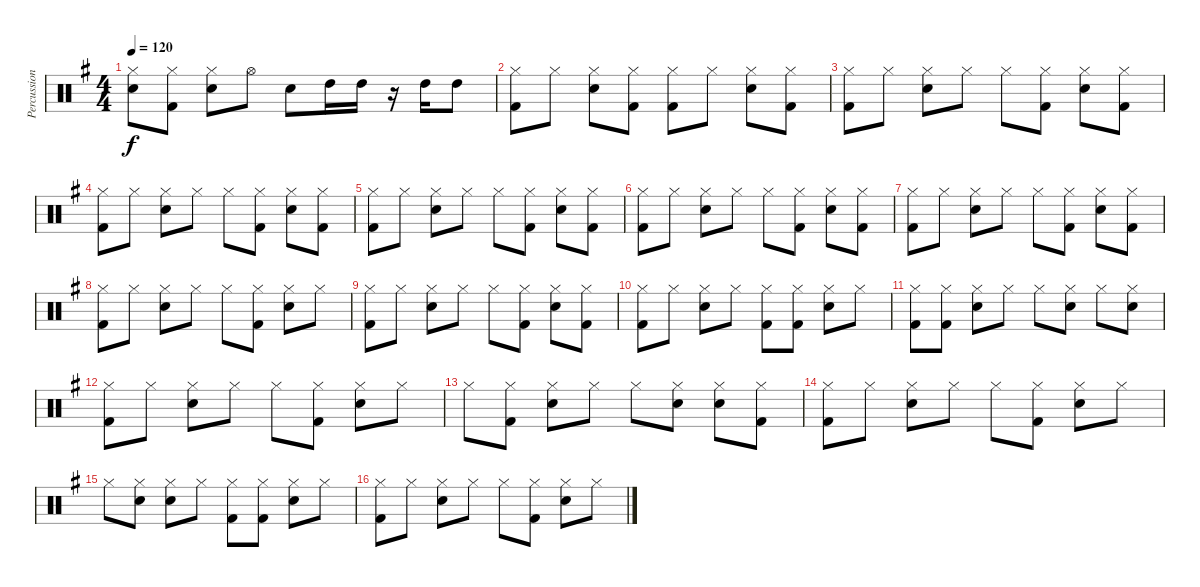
\track ("Percussion" "Percussion") {instrument percussion}
\staff {score}
\articulation defaults
\ts (4 4)
\tempo 120
\clef neutral
\ks g
("Hi-Hat (closed)" "Snare (hit) 2").8{dy f} ("Hi-Hat (closed)" "Kick (hit) 2").8 ("Hi-Hat (closed)" "Snare (hit) 2").8 "Hi-Hat (open)".8 "Snare (hit) 2".8 "High Tom (hit)".16 "High Tom (hit)".16 r.16 "High Tom (hit)".16 "High Tom (hit)".8 |
("Hi-Hat (closed)" "Kick (hit) 2").8 "Hi-Hat (closed)".8 ("Hi-Hat (closed)" "Snare (hit) 2").8 ("Hi-Hat (closed)" "Kick (hit) 2").8 ("Hi-Hat (closed)" "Kick (hit) 2").8 "Hi-Hat (closed)".8 ("Hi-Hat (closed)" "Snare (hit) 2").8 ("Hi-Hat (closed)" "Kick (hit) 2").8 |
("Hi-Hat (closed)" "Kick (hit) 2").8 "Hi-Hat (closed)".8 ("Hi-Hat (closed)" "Snare (hit) 2").8 "Hi-Hat (closed)".8 "Hi-Hat (closed)".8 ("Hi-Hat (closed)" "Kick (hit) 2").8 ("Hi-Hat (closed)" "Snare (hit) 2").8 ("Hi-Hat (closed)" "Kick (hit) 2").8 |
("Hi-Hat (closed)" "Kick (hit) 2").8 "Hi-Hat (closed)".8 ("Hi-Hat (closed)" "Snare (hit) 2").8 "Hi-Hat (closed)".8 "Hi-Hat (closed)".8 ("Hi-Hat (closed)" "Kick (hit) 2").8 ("Hi-Hat (closed)" "Snare (hit) 2").8 ("Hi-Hat (closed)" "Kick (hit) 2").8 |
("Hi-Hat (closed)" "Kick (hit) 2").8 "Hi-Hat (closed)".8 ("Hi-Hat (closed)" "Snare (hit) 2").8 "Hi-Hat (closed)".8 "Hi-Hat (closed)".8 ("Hi-Hat (closed)" "Kick (hit) 2").8 ("Hi-Hat (closed)" "Snare (hit) 2").8 ("Hi-Hat (closed)" "Kick (hit) 2").8 |
("Hi-Hat (closed)" "Kick (hit) 2").8 "Hi-Hat (closed)".8 ("Hi-Hat (closed)" "Snare (hit) 2").8 "Hi-Hat (closed)".8 "Hi-Hat (closed)".8 ("Hi-Hat (closed)" "Kick (hit) 2").8 ("Hi-Hat (closed)" "Snare (hit) 2").8 ("Hi-Hat (closed)" "Kick (hit) 2").8 |
("Hi-Hat (closed)" "Kick (hit) 2").8 "Hi-Hat (closed)".8 ("Hi-Hat (closed)" "Snare (hit) 2").8 "Hi-Hat (closed)".8 "Hi-Hat (closed)".8 ("Hi-Hat (closed)" "Kick (hit) 2").8 ("Hi-Hat (closed)" "Snare (hit) 2").8 ("Hi-Hat (closed)" "Kick (hit) 2").8 |
("Hi-Hat (closed)" "Kick (hit) 2").8 "Hi-Hat (closed)".8 ("Hi-Hat (closed)" "Snare (hit) 2").8 "Hi-Hat (closed)".8 "Hi-Hat (closed)".8 ("Hi-Hat (closed)" "Kick (hit) 2").8 ("Hi-Hat (closed)" "Snare (hit) 2").8 "Hi-Hat (closed)".8 |
("Hi-Hat (closed)" "Kick (hit) 2").8 "Hi-Hat (closed)".8 ("Hi-Hat (closed)" "Snare (hit) 2").8 "Hi-Hat (closed)".8 "Hi-Hat (closed)".8 ("Hi-Hat (closed)" "Kick (hit) 2").8 ("Hi-Hat (closed)" "Snare (hit) 2").8 ("Hi-Hat (closed)" "Kick (hit) 2").8 |
("Hi-Hat (closed)" "Kick (hit) 2").8 "Hi-Hat (closed)".8 ("Hi-Hat (closed)" "Snare (hit) 2").8 "Hi-Hat (closed)".8 ("Hi-Hat (closed)" "Kick (hit) 2").8 ("Hi-Hat (closed)" "Kick (hit) 2").8 ("Hi-Hat (closed)" "Snare (hit) 2").8 "Hi-Hat (closed)".8 |
("Hi-Hat (closed)" "Kick (hit) 2").8 ("Hi-Hat (closed)" "Kick (hit) 2").8 ("Hi-Hat (closed)" "Snare (hit) 2").8 "Hi-Hat (closed)".8 "Hi-Hat (closed)".8 ("Hi-Hat (closed)" "Snare (hit) 2").8 "Hi-Hat (closed)".8 ("Hi-Hat (closed)" "Snare (hit) 2").8 |
("Hi-Hat (closed)" "Kick (hit) 2").8 "Hi-Hat (closed)".8 ("Hi-Hat (closed)" "Snare (hit) 2").8 "Hi-Hat (closed)".8 "Hi-Hat (closed)".8 ("Hi-Hat (closed)" "Kick (hit) 2").8 ("Hi-Hat (closed)" "Snare (hit) 2").8 "Hi-Hat (closed)".8 |
"Hi-Hat (closed)".8 ("Hi-Hat (closed)" "Kick (hit) 2").8 ("Hi-Hat (closed)" "Snare (hit) 2").8 "Hi-Hat (closed)".8 "Hi-Hat (closed)".8 ("Hi-Hat (closed)" "Snare (hit) 2").8 ("Hi-Hat (closed)" "Snare (hit) 2").8 ("Hi-Hat (closed)" "Kick (hit) 2").8 |
("Hi-Hat (closed)" "Kick (hit) 2").8 "Hi-Hat (closed)".8 ("Hi-Hat (closed)" "Snare (hit) 2").8 "Hi-Hat (closed)".8 "Hi-Hat (closed)".8 ("Hi-Hat (closed)" "Kick (hit) 2").8 ("Hi-Hat (closed)" "Snare (hit) 2").8 "Hi-Hat (closed)".8 |
"Hi-Hat (closed)".8 ("Hi-Hat (closed)" "Snare (hit) 2").8 ("Hi-Hat (closed)" "Snare (hit) 2").8 "Hi-Hat (closed)".8 ("Hi-Hat (closed)" "Kick (hit) 2").8 ("Hi-Hat (closed)" "Kick (hit) 2").8 ("Hi-Hat (closed)" "Snare (hit) 2").8 "Hi-Hat (closed)".8 |
("Hi-Hat (closed)" "Kick (hit) 2").8 "Hi-Hat (closed)".8 ("Hi-Hat (closed)" "Snare (hit) 2").8 "Hi-Hat (closed)".8 "Hi-Hat (closed)".8 ("Hi-Hat (closed)" "Kick (hit) 2").8 ("Hi-Hat (closed)" "Snare (hit) 2").8 "Hi-Hat (closed)".8
